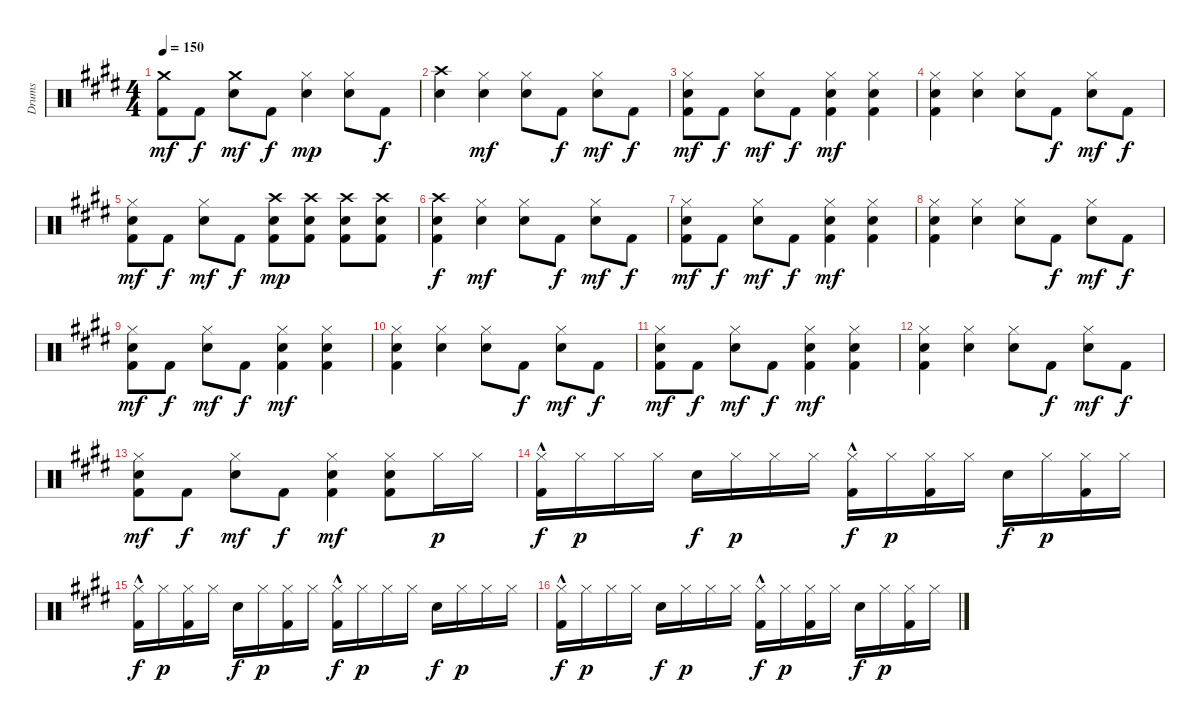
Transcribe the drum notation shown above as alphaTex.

\track ("Drums" "Drums") {instrument percussion}
\staff {score}
\articulation defaults
\ts (4 4)
\tempo 150
\clef neutral
\ks e
("Crash medium (hit)" "Kick (hit) 2").8{dy mf} "Kick (hit) 2".8{dy f} ("Crash medium (hit)" "Electric Snare (hit)").8{dy mf} "Kick (hit) 2".8{dy f} ("Hi-Hat (closed)" "Electric Snare (hit)").4{dy mp} ("Hi-Hat (closed)" "Electric Snare (hit)").8 "Kick (hit) 2".8{dy f} |
("Crash high (hit)" "Electric Snare (hit)").4 ("Hi-Hat (closed)" "Electric Snare (hit)").4{dy mf} ("Hi-Hat (closed)" "Electric Snare (hit)").8 "Kick (hit) 2".8{dy f} ("Hi-Hat (closed)" "Electric Snare (hit)").8{dy mf} "Kick (hit) 2".8{dy f} |
("Hi-Hat (closed)" "Electric Snare (hit)" "Kick (hit) 2").8{dy mf} "Kick (hit) 2".8{dy f} ("Hi-Hat (closed)" "Electric Snare (hit)").8{dy mf} "Kick (hit) 2".8{dy f} ("Hi-Hat (closed)" "Electric Snare (hit)" "Kick (hit) 2").4{dy mf} ("Hi-Hat (closed)" "Electric Snare (hit)" "Kick (hit) 2").4 |
("Hi-Hat (closed)" "Electric Snare (hit)" "Kick (hit) 2").4 ("Hi-Hat (closed)" "Electric Snare (hit)").4 ("Hi-Hat (closed)" "Electric Snare (hit)").8 "Kick (hit) 2".8{dy f} ("Hi-Hat (closed)" "Electric Snare (hit)").8{dy mf} "Kick (hit) 2".8{dy f} |
("Hi-Hat (closed)" "Electric Snare (hit)" "Kick (hit) 2").8{dy mf} "Kick (hit) 2".8{dy f} ("Hi-Hat (closed)" "Electric Snare (hit)").8{dy mf} "Kick (hit) 2".8{dy f} ("Crash high (hit)" "Electric Snare (hit)" "Kick (hit) 2").8{dy mp} ("Crash high (hit)" "Electric Snare (hit)" "Kick (hit) 2").8 ("Crash high (hit)" "Electric Snare (hit)" "Kick (hit) 2").8 ("Crash high (hit)" "Electric Snare (hit)" "Kick (hit) 2").8 |
("Crash high (hit)" "Electric Snare (hit)" "Kick (hit) 2").4{dy f} ("Hi-Hat (closed)" "Electric Snare (hit)").4{dy mf} ("Hi-Hat (closed)" "Electric Snare (hit)").8 "Kick (hit) 2".8{dy f} ("Hi-Hat (closed)" "Electric Snare (hit)").8{dy mf} "Kick (hit) 2".8{dy f} |
("Hi-Hat (closed)" "Electric Snare (hit)" "Kick (hit) 2").8{dy mf} "Kick (hit) 2".8{dy f} ("Hi-Hat (closed)" "Electric Snare (hit)").8{dy mf} "Kick (hit) 2".8{dy f} ("Hi-Hat (closed)" "Electric Snare (hit)" "Kick (hit) 2").4{dy mf} ("Hi-Hat (closed)" "Electric Snare (hit)" "Kick (hit) 2").4 |
("Hi-Hat (closed)" "Electric Snare (hit)" "Kick (hit) 2").4 ("Hi-Hat (closed)" "Electric Snare (hit)").4 ("Hi-Hat (closed)" "Electric Snare (hit)").8 "Kick (hit) 2".8{dy f} ("Hi-Hat (closed)" "Electric Snare (hit)").8{dy mf} "Kick (hit) 2".8{dy f} |
("Hi-Hat (closed)" "Electric Snare (hit)" "Kick (hit) 2").8{dy mf} "Kick (hit) 2".8{dy f} ("Hi-Hat (closed)" "Electric Snare (hit)").8{dy mf} "Kick (hit) 2".8{dy f} ("Hi-Hat (closed)" "Electric Snare (hit)" "Kick (hit) 2").4{dy mf} ("Hi-Hat (closed)" "Electric Snare (hit)" "Kick (hit) 2").4 |
("Hi-Hat (closed)" "Electric Snare (hit)" "Kick (hit) 2").4 ("Hi-Hat (closed)" "Electric Snare (hit)").4 ("Hi-Hat (closed)" "Electric Snare (hit)").8 "Kick (hit) 2".8{dy f} ("Hi-Hat (closed)" "Electric Snare (hit)").8{dy mf} "Kick (hit) 2".8{dy f} |
("Hi-Hat (closed)" "Electric Snare (hit)" "Kick (hit) 2").8{dy mf} "Kick (hit) 2".8{dy f} ("Hi-Hat (closed)" "Electric Snare (hit)").8{dy mf} "Kick (hit) 2".8{dy f} ("Hi-Hat (closed)" "Electric Snare (hit)" "Kick (hit) 2").4{dy mf} ("Hi-Hat (closed)" "Electric Snare (hit)" "Kick (hit) 2").4 |
("Hi-Hat (closed)" "Electric Snare (hit)" "Kick (hit) 2").4 ("Hi-Hat (closed)" "Electric Snare (hit)").4 ("Hi-Hat (closed)" "Electric Snare (hit)").8 "Kick (hit) 2".8{dy f} ("Hi-Hat (closed)" "Electric Snare (hit)").8{dy mf} "Kick (hit) 2".8{dy f} |
("Hi-Hat (closed)" "Electric Snare (hit)" "Kick (hit) 2").8{dy mf} "Kick (hit) 2".8{dy f} ("Hi-Hat (closed)" "Electric Snare (hit)").8{dy mf} "Kick (hit) 2".8{dy f} ("Hi-Hat (closed)" "Electric Snare (hit)" "Kick (hit) 2").4{dy mf} ("Hi-Hat (closed)" "Electric Snare (hit)" "Kick (hit) 2").8 "Hi-Hat (closed)".16{dy p} "Hi-Hat (closed)".16 |
("Hi-Hat (closed)"{hac} "Kick (hit) 2").16{dy f} "Hi-Hat (closed)".16{dy p} "Hi-Hat (closed)".16 "Hi-Hat (closed)".16 "Electric Snare (hit)".16{dy f} "Hi-Hat (closed)".16{dy p} "Hi-Hat (closed)".16 "Hi-Hat (closed)".16 ("Hi-Hat (closed)"{hac} "Kick (hit) 2").16{dy f} "Hi-Hat (closed)".16{dy p} ("Hi-Hat (closed)" "Kick (hit) 2").16 "Hi-Hat (closed)".16 "Electric Snare (hit)".16{dy f} "Hi-Hat (closed)".16{dy p} ("Hi-Hat (closed)" "Kick (hit) 2").16 "Hi-Hat (closed)".16 |
("Hi-Hat (closed)"{hac} "Kick (hit) 2").16{dy f} "Hi-Hat (closed)".16{dy p} ("Hi-Hat (closed)" "Kick (hit) 2").16 "Hi-Hat (closed)".16 "Electric Snare (hit)".16{dy f} "Hi-Hat (closed)".16{dy p} ("Hi-Hat (closed)" "Kick (hit) 2").16 "Hi-Hat (closed)".16 ("Hi-Hat (closed)"{hac} "Kick (hit) 2").16{dy f} "Hi-Hat (closed)".16{dy p} "Hi-Hat (closed)".16 "Hi-Hat (closed)".16 "Electric Snare (hit)".16{dy f} "Hi-Hat (closed)".16{dy p} "Hi-Hat (closed)".16 "Hi-Hat (closed)".16 |
("Hi-Hat (closed)"{hac} "Kick (hit) 2").16{dy f} "Hi-Hat (closed)".16{dy p} "Hi-Hat (closed)".16 "Hi-Hat (closed)".16 "Electric Snare (hit)".16{dy f} "Hi-Hat (closed)".16{dy p} "Hi-Hat (closed)".16 "Hi-Hat (closed)".16 ("Hi-Hat (closed)"{hac} "Kick (hit) 2").16{dy f} "Hi-Hat (closed)".16{dy p} ("Hi-Hat (closed)" "Kick (hit) 2").16 "Hi-Hat (closed)".16 "Electric Snare (hit)".16{dy f} "Hi-Hat (closed)".16{dy p} ("Hi-Hat (closed)" "Kick (hit) 2").16 "Hi-Hat (closed)".16
